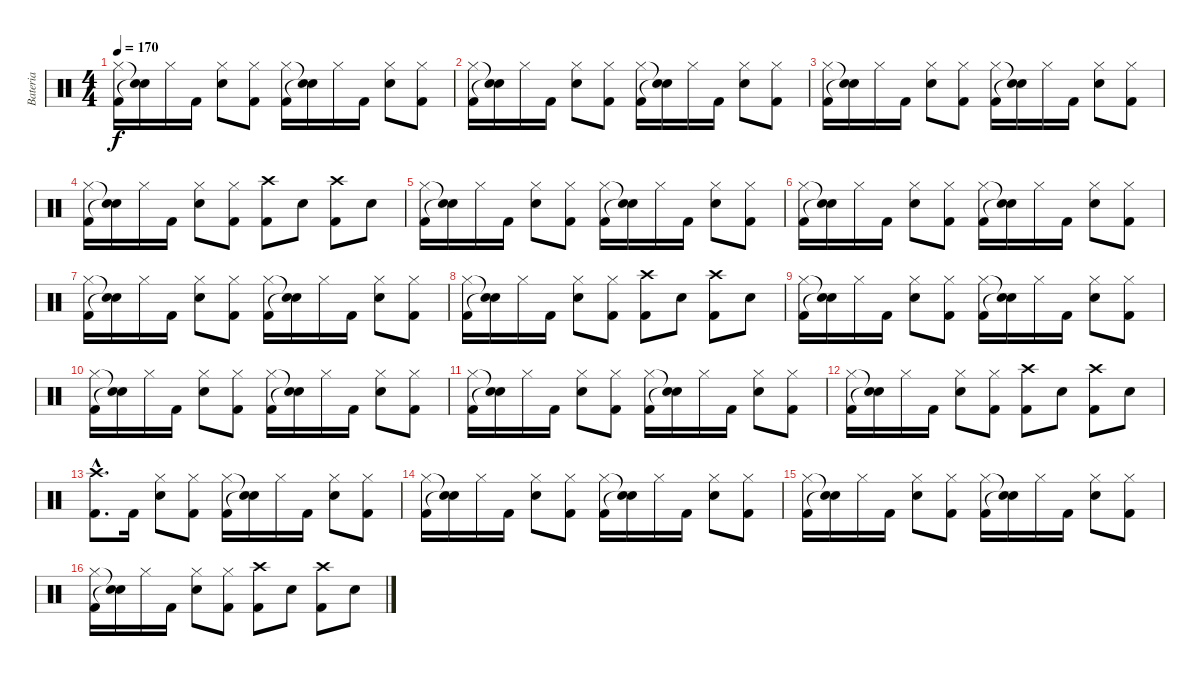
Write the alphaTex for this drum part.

\track ("Bateria" "Bateria") {instrument percussion}
\staff {score}
\articulation defaults
\ts (4 4)
\tempo 170
\clef neutral
\ks c
("Hi-Hat (closed)" "Kick (hit) 2").16{dy f} ("Snare (hit)"{t} "Snare (hit)"{t}).16 "Hi-Hat (closed)".16 "Kick (hit) 2".16 ("Hi-Hat (closed)" "Snare (hit) 2").8 ("Hi-Hat (closed)" "Kick (hit) 2").8 ("Hi-Hat (closed)" "Kick (hit) 2").16 ("Snare (hit)"{t} "Snare (hit)"{t}).16 "Hi-Hat (closed)".16 "Kick (hit) 2".16 ("Hi-Hat (closed)" "Snare (hit) 2").8 ("Hi-Hat (closed)" "Kick (hit) 2").8 |
("Hi-Hat (closed)" "Kick (hit) 2").16 ("Snare (hit)"{t} "Snare (hit)"{t}).16 "Hi-Hat (closed)".16 "Kick (hit) 2".16 ("Hi-Hat (closed)" "Snare (hit) 2").8 ("Hi-Hat (closed)" "Kick (hit) 2").8 ("Hi-Hat (closed)" "Kick (hit) 2").16 ("Snare (hit)"{t} "Snare (hit)"{t}).16 "Hi-Hat (closed)".16 "Kick (hit) 2".16 ("Hi-Hat (closed)" "Snare (hit) 2").8 ("Hi-Hat (closed)" "Kick (hit) 2").8 |
("Hi-Hat (closed)" "Kick (hit) 2").16 ("Snare (hit)"{t} "Snare (hit)"{t}).16 "Hi-Hat (closed)".16 "Kick (hit) 2".16 ("Hi-Hat (closed)" "Snare (hit) 2").8 ("Hi-Hat (closed)" "Kick (hit) 2").8 ("Hi-Hat (closed)" "Kick (hit) 2").16 ("Snare (hit)"{t} "Snare (hit)"{t}).16 "Hi-Hat (closed)".16 "Kick (hit) 2".16 ("Hi-Hat (closed)" "Snare (hit) 2").8 ("Hi-Hat (closed)" "Kick (hit) 2").8 |
("Hi-Hat (closed)" "Kick (hit) 2").16 ("Snare (hit)"{t} "Snare (hit)"{t}).16 "Hi-Hat (closed)".16 "Kick (hit) 2".16 ("Hi-Hat (closed)" "Snare (hit) 2").8 ("Hi-Hat (closed)" "Kick (hit) 2").8 ("Crash high (hit)" "Kick (hit) 2").8 "Snare (hit) 2".8 ("Crash high (hit)" "Kick (hit) 2").8 "Snare (hit) 2".8 |
\section ("" "")
("Hi-Hat (closed)" "Kick (hit) 2").16 ("Snare (hit)"{t} "Snare (hit)"{t}).16 "Hi-Hat (closed)".16 "Kick (hit) 2".16 ("Hi-Hat (closed)" "Snare (hit) 2").8 ("Hi-Hat (closed)" "Kick (hit) 2").8 ("Hi-Hat (closed)" "Kick (hit) 2").16 ("Snare (hit)"{t} "Snare (hit)"{t}).16 "Hi-Hat (closed)".16 "Kick (hit) 2".16 ("Hi-Hat (closed)" "Snare (hit) 2").8 ("Hi-Hat (closed)" "Kick (hit) 2").8 |
("Hi-Hat (closed)" "Kick (hit) 2").16 ("Snare (hit)"{t} "Snare (hit)"{t}).16 "Hi-Hat (closed)".16 "Kick (hit) 2".16 ("Hi-Hat (closed)" "Snare (hit) 2").8 ("Hi-Hat (closed)" "Kick (hit) 2").8 ("Hi-Hat (closed)" "Kick (hit) 2").16 ("Snare (hit)"{t} "Snare (hit)"{t}).16 "Hi-Hat (closed)".16 "Kick (hit) 2".16 ("Hi-Hat (closed)" "Snare (hit) 2").8 ("Hi-Hat (closed)" "Kick (hit) 2").8 |
("Hi-Hat (closed)" "Kick (hit) 2").16 ("Snare (hit)"{t} "Snare (hit)"{t}).16 "Hi-Hat (closed)".16 "Kick (hit) 2".16 ("Hi-Hat (closed)" "Snare (hit) 2").8 ("Hi-Hat (closed)" "Kick (hit) 2").8 ("Hi-Hat (closed)" "Kick (hit) 2").16 ("Snare (hit)"{t} "Snare (hit)"{t}).16 "Hi-Hat (closed)".16 "Kick (hit) 2".16 ("Hi-Hat (closed)" "Snare (hit) 2").8 ("Hi-Hat (closed)" "Kick (hit) 2").8 |
("Hi-Hat (closed)" "Kick (hit) 2").16 ("Snare (hit)"{t} "Snare (hit)"{t}).16 "Hi-Hat (closed)".16 "Kick (hit) 2".16 ("Hi-Hat (closed)" "Snare (hit) 2").8 ("Hi-Hat (closed)" "Kick (hit) 2").8 ("Crash high (hit)" "Kick (hit) 2").8 "Snare (hit) 2".8 ("Crash high (hit)" "Kick (hit) 2").8 "Snare (hit) 2".8 |
("Hi-Hat (closed)" "Kick (hit) 2").16 ("Snare (hit)"{t} "Snare (hit)"{t}).16 "Hi-Hat (closed)".16 "Kick (hit) 2".16 ("Hi-Hat (closed)" "Snare (hit) 2").8 ("Hi-Hat (closed)" "Kick (hit) 2").8 ("Hi-Hat (closed)" "Kick (hit) 2").16 ("Snare (hit)"{t} "Snare (hit)"{t}).16 "Hi-Hat (closed)".16 "Kick (hit) 2".16 ("Hi-Hat (closed)" "Snare (hit) 2").8 ("Hi-Hat (closed)" "Kick (hit) 2").8 |
("Hi-Hat (closed)" "Kick (hit) 2").16 ("Snare (hit)"{t} "Snare (hit)"{t}).16 "Hi-Hat (closed)".16 "Kick (hit) 2".16 ("Hi-Hat (closed)" "Snare (hit) 2").8 ("Hi-Hat (closed)" "Kick (hit) 2").8 ("Hi-Hat (closed)" "Kick (hit) 2").16 ("Snare (hit)"{t} "Snare (hit)"{t}).16 "Hi-Hat (closed)".16 "Kick (hit) 2".16 ("Hi-Hat (closed)" "Snare (hit) 2").8 ("Hi-Hat (closed)" "Kick (hit) 2").8 |
("Hi-Hat (closed)" "Kick (hit) 2").16 ("Snare (hit)"{t} "Snare (hit)"{t}).16 "Hi-Hat (closed)".16 "Kick (hit) 2".16 ("Hi-Hat (closed)" "Snare (hit) 2").8 ("Hi-Hat (closed)" "Kick (hit) 2").8 ("Hi-Hat (closed)" "Kick (hit) 2").16 ("Snare (hit)"{t} "Snare (hit)"{t}).16 "Hi-Hat (closed)".16 "Kick (hit) 2".16 ("Hi-Hat (closed)" "Snare (hit) 2").8 ("Hi-Hat (closed)" "Kick (hit) 2").8 |
("Hi-Hat (closed)" "Kick (hit) 2").16 ("Snare (hit)"{t} "Snare (hit)"{t}).16 "Hi-Hat (closed)".16 "Kick (hit) 2".16 ("Hi-Hat (closed)" "Snare (hit) 2").8 ("Hi-Hat (closed)" "Kick (hit) 2").8 ("Crash high (hit)" "Kick (hit) 2").8 "Snare (hit) 2".8 ("Crash high (hit)" "Kick (hit) 2").8 "Snare (hit) 2".8 |
("Crash high (hit)"{hac} "Kick (hit) 2"{hac}).8{d} "Kick (hit) 2".16 ("Hi-Hat (closed)" "Snare (hit) 2").8 ("Hi-Hat (closed)" "Kick (hit) 2").8 ("Hi-Hat (closed)" "Kick (hit) 2").16 ("Snare (hit)"{t} "Snare (hit)"{t}).16 "Hi-Hat (closed)".16 "Kick (hit) 2".16 ("Hi-Hat (closed)" "Snare (hit) 2").8 ("Hi-Hat (closed)" "Kick (hit) 2").8 |
("Hi-Hat (closed)" "Kick (hit) 2").16 ("Snare (hit)"{t} "Snare (hit)"{t}).16 "Hi-Hat (closed)".16 "Kick (hit) 2".16 ("Hi-Hat (closed)" "Snare (hit) 2").8 ("Hi-Hat (closed)" "Kick (hit) 2").8 ("Hi-Hat (closed)" "Kick (hit) 2").16 ("Snare (hit)"{t} "Snare (hit)"{t}).16 "Hi-Hat (closed)".16 "Kick (hit) 2".16 ("Hi-Hat (closed)" "Snare (hit) 2").8 ("Hi-Hat (closed)" "Kick (hit) 2").8 |
("Hi-Hat (closed)" "Kick (hit) 2").16 ("Snare (hit)"{t} "Snare (hit)"{t}).16 "Hi-Hat (closed)".16 "Kick (hit) 2".16 ("Hi-Hat (closed)" "Snare (hit) 2").8 ("Hi-Hat (closed)" "Kick (hit) 2").8 ("Hi-Hat (closed)" "Kick (hit) 2").16 ("Snare (hit)"{t} "Snare (hit)"{t}).16 "Hi-Hat (closed)".16 "Kick (hit) 2".16 ("Hi-Hat (closed)" "Snare (hit) 2").8 ("Hi-Hat (closed)" "Kick (hit) 2").8 |
("Hi-Hat (closed)" "Kick (hit) 2").16 ("Snare (hit)"{t} "Snare (hit)"{t}).16 "Hi-Hat (closed)".16 "Kick (hit) 2".16 ("Hi-Hat (closed)" "Snare (hit) 2").8 ("Hi-Hat (closed)" "Kick (hit) 2").8 ("Crash high (hit)" "Kick (hit) 2").8 "Snare (hit) 2".8 ("Crash high (hit)" "Kick (hit) 2").8 "Snare (hit) 2".8
